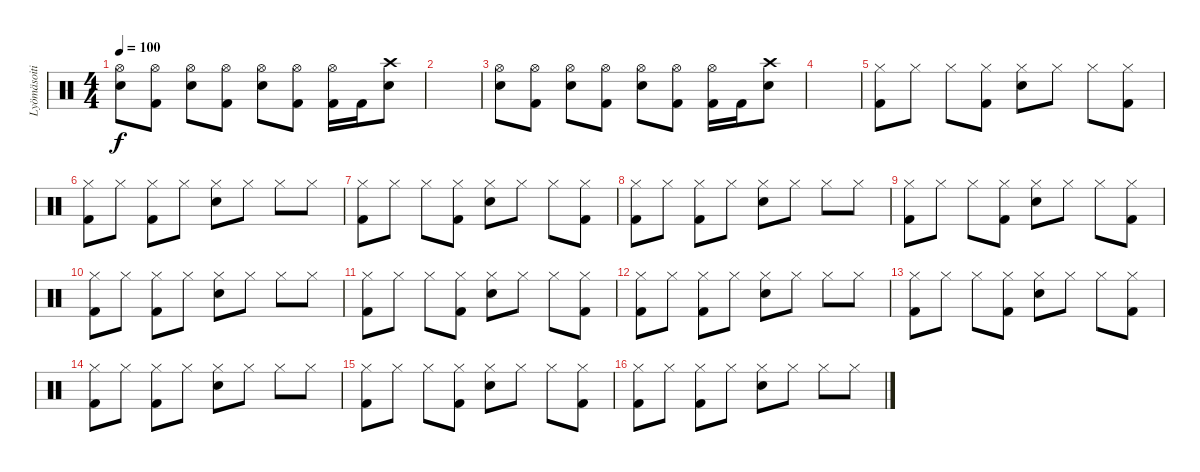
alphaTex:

\track ("Lyömäsoitin" "Lyömäsoiti") {instrument percussion}
\staff {score}
\articulation defaults
\ts (4 4)
\tempo 100
\clef neutral
\ks c
("Hi-Hat (open)" "Snare (hit) 2").8{dy f} ("Hi-Hat (open)" "Kick (hit) 2").8 ("Hi-Hat (open)" "Snare (hit) 2").8 ("Hi-Hat (open)" "Kick (hit) 2").8 ("Hi-Hat (open)" "Snare (hit) 2").8 ("Hi-Hat (open)" "Kick (hit) 2").8 ("Hi-Hat (open)" "Kick (hit) 2").16 "Kick (hit) 2".16 ("Crash high (hit)" "Snare (hit) 2").8 |
|
("Hi-Hat (open)" "Snare (hit) 2").8 ("Hi-Hat (open)" "Kick (hit) 2").8 ("Hi-Hat (open)" "Snare (hit) 2").8 ("Hi-Hat (open)" "Kick (hit) 2").8 ("Hi-Hat (open)" "Snare (hit) 2").8 ("Hi-Hat (open)" "Kick (hit) 2").8 ("Hi-Hat (open)" "Kick (hit) 2").16 "Kick (hit) 2".16 ("Crash high (hit)" "Snare (hit) 2").8 |
|
("Hi-Hat (closed)" "Kick (hit) 2").8 "Hi-Hat (closed)".8 "Hi-Hat (closed)".8 ("Hi-Hat (closed)" "Kick (hit) 2").8 ("Hi-Hat (closed)" "Snare (hit) 2").8 "Hi-Hat (closed)".8 "Hi-Hat (closed)".8 ("Hi-Hat (closed)" "Kick (hit) 2").8 |
("Hi-Hat (closed)" "Kick (hit) 2").8 "Hi-Hat (closed)".8 ("Hi-Hat (closed)" "Kick (hit) 2").8 "Hi-Hat (closed)".8 ("Hi-Hat (closed)" "Snare (hit) 2").8 "Hi-Hat (closed)".8 "Hi-Hat (closed)".8 "Hi-Hat (closed)".8 |
("Hi-Hat (closed)" "Kick (hit) 2").8 "Hi-Hat (closed)".8 "Hi-Hat (closed)".8 ("Hi-Hat (closed)" "Kick (hit) 2").8 ("Hi-Hat (closed)" "Snare (hit) 2").8 "Hi-Hat (closed)".8 "Hi-Hat (closed)".8 ("Hi-Hat (closed)" "Kick (hit) 2").8 |
("Hi-Hat (closed)" "Kick (hit) 2").8 "Hi-Hat (closed)".8 ("Hi-Hat (closed)" "Kick (hit) 2").8 "Hi-Hat (closed)".8 ("Hi-Hat (closed)" "Snare (hit) 2").8 "Hi-Hat (closed)".8 "Hi-Hat (closed)".8 "Hi-Hat (closed)".8 |
("Hi-Hat (closed)" "Kick (hit) 2").8 "Hi-Hat (closed)".8 "Hi-Hat (closed)".8 ("Hi-Hat (closed)" "Kick (hit) 2").8 ("Hi-Hat (closed)" "Snare (hit) 2").8 "Hi-Hat (closed)".8 "Hi-Hat (closed)".8 ("Hi-Hat (closed)" "Kick (hit) 2").8 |
("Hi-Hat (closed)" "Kick (hit) 2").8 "Hi-Hat (closed)".8 ("Hi-Hat (closed)" "Kick (hit) 2").8 "Hi-Hat (closed)".8 ("Hi-Hat (closed)" "Snare (hit) 2").8 "Hi-Hat (closed)".8 "Hi-Hat (closed)".8 "Hi-Hat (closed)".8 |
("Hi-Hat (closed)" "Kick (hit) 2").8 "Hi-Hat (closed)".8 "Hi-Hat (closed)".8 ("Hi-Hat (closed)" "Kick (hit) 2").8 ("Hi-Hat (closed)" "Snare (hit) 2").8 "Hi-Hat (closed)".8 "Hi-Hat (closed)".8 ("Hi-Hat (closed)" "Kick (hit) 2").8 |
("Hi-Hat (closed)" "Kick (hit) 2").8 "Hi-Hat (closed)".8 ("Hi-Hat (closed)" "Kick (hit) 2").8 "Hi-Hat (closed)".8 ("Hi-Hat (closed)" "Snare (hit) 2").8 "Hi-Hat (closed)".8 "Hi-Hat (closed)".8 "Hi-Hat (closed)".8 |
("Hi-Hat (closed)" "Kick (hit) 2").8 "Hi-Hat (closed)".8 "Hi-Hat (closed)".8 ("Hi-Hat (closed)" "Kick (hit) 2").8 ("Hi-Hat (closed)" "Snare (hit) 2").8 "Hi-Hat (closed)".8 "Hi-Hat (closed)".8 ("Hi-Hat (closed)" "Kick (hit) 2").8 |
("Hi-Hat (closed)" "Kick (hit) 2").8 "Hi-Hat (closed)".8 ("Hi-Hat (closed)" "Kick (hit) 2").8 "Hi-Hat (closed)".8 ("Hi-Hat (closed)" "Snare (hit) 2").8 "Hi-Hat (closed)".8 "Hi-Hat (closed)".8 "Hi-Hat (closed)".8 |
("Hi-Hat (closed)" "Kick (hit) 2").8 "Hi-Hat (closed)".8 "Hi-Hat (closed)".8 ("Hi-Hat (closed)" "Kick (hit) 2").8 ("Hi-Hat (closed)" "Snare (hit) 2").8 "Hi-Hat (closed)".8 "Hi-Hat (closed)".8 ("Hi-Hat (closed)" "Kick (hit) 2").8 |
("Hi-Hat (closed)" "Kick (hit) 2").8 "Hi-Hat (closed)".8 ("Hi-Hat (closed)" "Kick (hit) 2").8 "Hi-Hat (closed)".8 ("Hi-Hat (closed)" "Snare (hit) 2").8 "Hi-Hat (closed)".8 "Hi-Hat (closed)".8 "Hi-Hat (closed)".8
